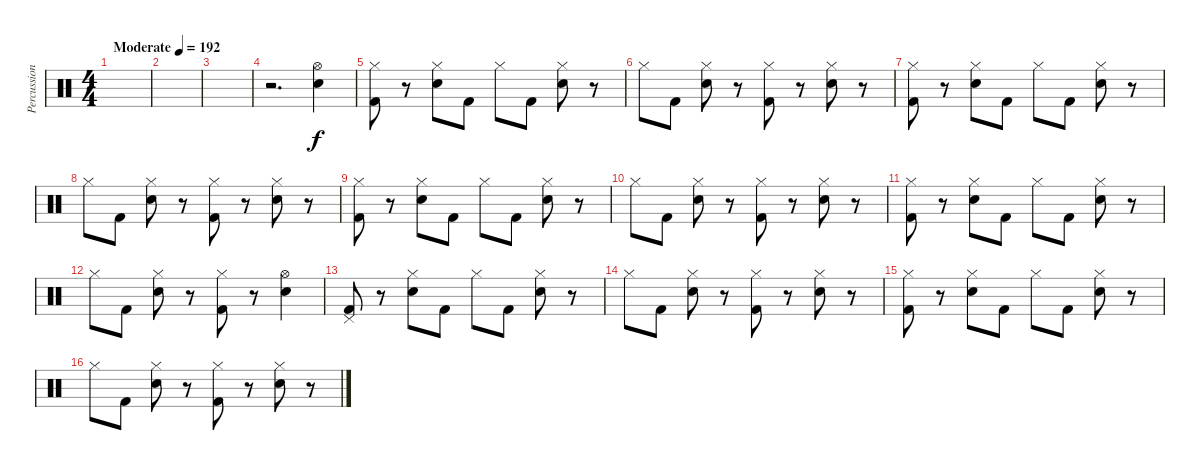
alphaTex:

\track ("Percussion" "Percussion") {instrument percussion}
\staff {score}
\articulation defaults
\ts (4 4)
\tempo (192 "Moderate")
\clef neutral
\ks c
|
|
|
r.2{d} ("Hi-Hat (open)" "Electric Snare (hit)").4 |
("Hi-Hat (closed)" "Kick (hit) 2").8 r.8 ("Hi-Hat (closed)" "Electric Snare (hit)").8 "Kick (hit) 2".8 "Hi-Hat (closed)".8 "Kick (hit) 2".8 ("Hi-Hat (closed)" "Electric Snare (hit)").8 r.8 |
"Hi-Hat (closed)".8 "Kick (hit) 2".8 ("Hi-Hat (closed)" "Electric Snare (hit)").8 r.8 ("Hi-Hat (closed)" "Kick (hit) 2").8 r.8 ("Hi-Hat (closed)" "Electric Snare (hit)").8 r.8 |
("Hi-Hat (closed)" "Kick (hit) 2").8 r.8 ("Hi-Hat (closed)" "Electric Snare (hit)").8 "Kick (hit) 2".8 "Hi-Hat (closed)".8 "Kick (hit) 2".8 ("Hi-Hat (closed)" "Electric Snare (hit)").8 r.8 |
"Hi-Hat (closed)".8 "Kick (hit) 2".8 ("Hi-Hat (closed)" "Electric Snare (hit)").8 r.8 ("Hi-Hat (closed)" "Kick (hit) 2").8 r.8 ("Hi-Hat (closed)" "Electric Snare (hit)").8 r.8 |
("Hi-Hat (closed)" "Kick (hit) 2").8 r.8 ("Hi-Hat (closed)" "Electric Snare (hit)").8 "Kick (hit) 2".8 "Hi-Hat (closed)".8 "Kick (hit) 2".8 ("Hi-Hat (closed)" "Electric Snare (hit)").8 r.8 |
"Hi-Hat (closed)".8 "Kick (hit) 2".8 ("Hi-Hat (closed)" "Electric Snare (hit)").8 r.8 ("Hi-Hat (closed)" "Kick (hit) 2").8 r.8 ("Hi-Hat (closed)" "Electric Snare (hit)").8 r.8 |
("Hi-Hat (closed)" "Kick (hit) 2").8 r.8 ("Hi-Hat (closed)" "Electric Snare (hit)").8 "Kick (hit) 2".8 "Hi-Hat (closed)".8 "Kick (hit) 2".8 ("Hi-Hat (closed)" "Electric Snare (hit)").8 r.8 |
"Hi-Hat (closed)".8 "Kick (hit) 2".8 ("Hi-Hat (closed)" "Electric Snare (hit)").8 r.8 ("Hi-Hat (closed)" "Kick (hit) 2").8 r.8 ("Hi-Hat (open)" "Electric Snare (hit)").4 |
("Pedal Hi-Hat (hit)" "Kick (hit) 2").8 r.8 ("Hi-Hat (closed)" "Electric Snare (hit)").8 "Kick (hit) 2".8 "Hi-Hat (closed)".8 "Kick (hit) 2".8 ("Hi-Hat (closed)" "Electric Snare (hit)").8 r.8 |
"Hi-Hat (closed)".8 "Kick (hit) 2".8 ("Hi-Hat (closed)" "Electric Snare (hit)").8 r.8 ("Hi-Hat (closed)" "Kick (hit) 2").8 r.8 ("Hi-Hat (closed)" "Electric Snare (hit)").8 r.8 |
("Hi-Hat (closed)" "Kick (hit) 2").8 r.8 ("Hi-Hat (closed)" "Electric Snare (hit)").8 "Kick (hit) 2".8 "Hi-Hat (closed)".8 "Kick (hit) 2".8 ("Hi-Hat (closed)" "Electric Snare (hit)").8 r.8 |
"Hi-Hat (closed)".8 "Kick (hit) 2".8 ("Hi-Hat (closed)" "Electric Snare (hit)").8 r.8 ("Hi-Hat (closed)" "Kick (hit) 2").8 r.8 ("Hi-Hat (closed)" "Electric Snare (hit)").8 r.8
